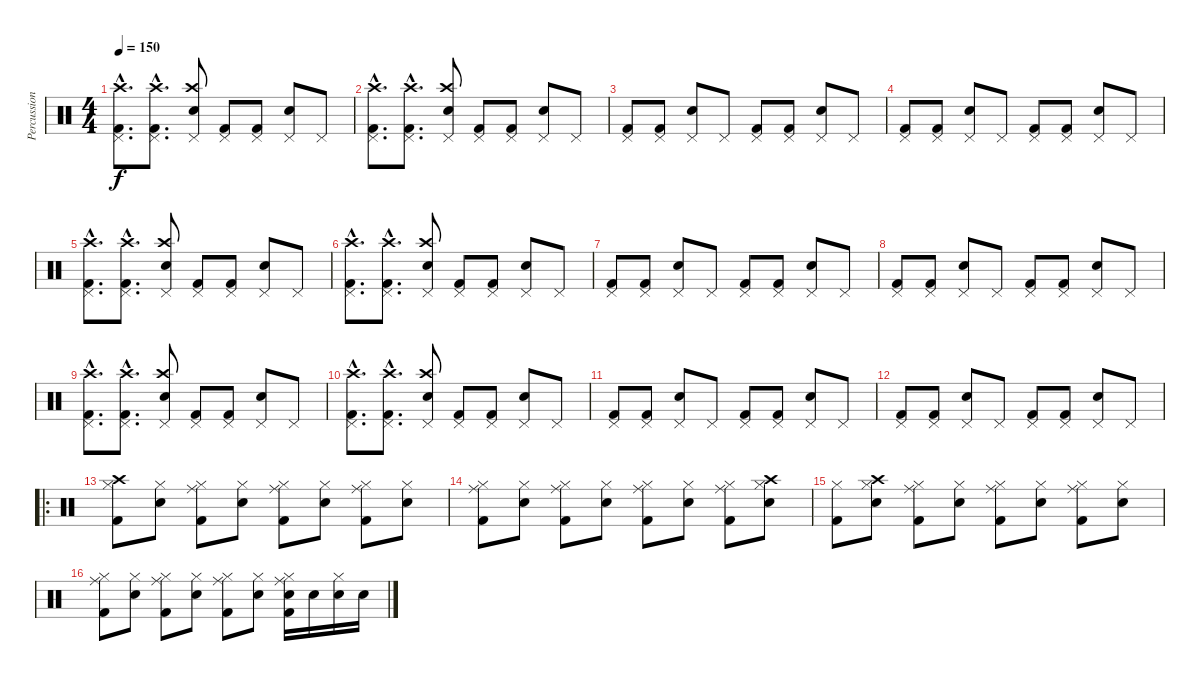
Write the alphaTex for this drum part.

\track ("Percussion" "Percussion") {instrument percussion}
\staff {score}
\articulation defaults
\ts (4 4)
\tempo 150
\clef neutral
\ks c
("Pedal Hi-Hat (hit)"{hac} "Kick (hit) 2"{hac} "Crash high (hit)"{hac}).8{d dy f} ("Pedal Hi-Hat (hit)"{hac} "Kick (hit) 2"{hac} "Crash high (hit)"{hac}).8{d} ("Pedal Hi-Hat (hit)" "Electric Snare (hit)" "Crash high (hit)").8 ("Pedal Hi-Hat (hit)" "Kick (hit) 2").8 ("Pedal Hi-Hat (hit)" "Kick (hit) 2").8 ("Pedal Hi-Hat (hit)" "Electric Snare (hit)").8 "Pedal Hi-Hat (hit)".8 |
("Pedal Hi-Hat (hit)"{hac} "Kick (hit) 2"{hac} "Crash high (hit)"{hac}).8{d} ("Pedal Hi-Hat (hit)"{hac} "Kick (hit) 2"{hac} "Crash high (hit)"{hac}).8{d} ("Pedal Hi-Hat (hit)" "Electric Snare (hit)" "Crash high (hit)").8 ("Pedal Hi-Hat (hit)" "Kick (hit) 2").8 ("Pedal Hi-Hat (hit)" "Kick (hit) 2").8 ("Pedal Hi-Hat (hit)" "Electric Snare (hit)").8 "Pedal Hi-Hat (hit)".8 |
("Pedal Hi-Hat (hit)" "Kick (hit) 2").8 ("Pedal Hi-Hat (hit)" "Kick (hit) 2").8 ("Pedal Hi-Hat (hit)" "Electric Snare (hit)").8 "Pedal Hi-Hat (hit)".8 ("Pedal Hi-Hat (hit)" "Kick (hit) 2").8 ("Pedal Hi-Hat (hit)" "Kick (hit) 2").8 ("Pedal Hi-Hat (hit)" "Electric Snare (hit)").8 "Pedal Hi-Hat (hit)".8 |
("Pedal Hi-Hat (hit)" "Kick (hit) 2").8 ("Pedal Hi-Hat (hit)" "Kick (hit) 2").8 ("Pedal Hi-Hat (hit)" "Electric Snare (hit)").8 "Pedal Hi-Hat (hit)".8 ("Pedal Hi-Hat (hit)" "Kick (hit) 2").8 ("Pedal Hi-Hat (hit)" "Kick (hit) 2").8 ("Pedal Hi-Hat (hit)" "Electric Snare (hit)").8 "Pedal Hi-Hat (hit)".8 |
("Pedal Hi-Hat (hit)"{hac} "Kick (hit) 2"{hac} "Crash high (hit)"{hac}).8{d} ("Pedal Hi-Hat (hit)"{hac} "Kick (hit) 2"{hac} "Crash high (hit)"{hac}).8{d} ("Pedal Hi-Hat (hit)" "Electric Snare (hit)" "Crash high (hit)").8 ("Pedal Hi-Hat (hit)" "Kick (hit) 2").8 ("Pedal Hi-Hat (hit)" "Kick (hit) 2").8 ("Pedal Hi-Hat (hit)" "Electric Snare (hit)").8 "Pedal Hi-Hat (hit)".8 |
("Pedal Hi-Hat (hit)"{hac} "Kick (hit) 2"{hac} "Crash high (hit)"{hac}).8{d} ("Pedal Hi-Hat (hit)"{hac} "Kick (hit) 2"{hac} "Crash high (hit)"{hac}).8{d} ("Pedal Hi-Hat (hit)" "Electric Snare (hit)" "Crash high (hit)").8 ("Pedal Hi-Hat (hit)" "Kick (hit) 2").8 ("Pedal Hi-Hat (hit)" "Kick (hit) 2").8 ("Pedal Hi-Hat (hit)" "Electric Snare (hit)").8 "Pedal Hi-Hat (hit)".8 |
("Pedal Hi-Hat (hit)" "Kick (hit) 2").8 ("Pedal Hi-Hat (hit)" "Kick (hit) 2").8 ("Pedal Hi-Hat (hit)" "Electric Snare (hit)").8 "Pedal Hi-Hat (hit)".8 ("Pedal Hi-Hat (hit)" "Kick (hit) 2").8 ("Pedal Hi-Hat (hit)" "Kick (hit) 2").8 ("Pedal Hi-Hat (hit)" "Electric Snare (hit)").8 "Pedal Hi-Hat (hit)".8 |
("Pedal Hi-Hat (hit)" "Kick (hit) 2").8 ("Pedal Hi-Hat (hit)" "Kick (hit) 2").8 ("Pedal Hi-Hat (hit)" "Electric Snare (hit)").8 "Pedal Hi-Hat (hit)".8 ("Pedal Hi-Hat (hit)" "Kick (hit) 2").8 ("Pedal Hi-Hat (hit)" "Kick (hit) 2").8 ("Pedal Hi-Hat (hit)" "Electric Snare (hit)").8 "Pedal Hi-Hat (hit)".8 |
("Pedal Hi-Hat (hit)"{hac} "Kick (hit) 2"{hac} "Crash high (hit)"{hac}).8{d} ("Pedal Hi-Hat (hit)"{hac} "Kick (hit) 2"{hac} "Crash high (hit)"{hac}).8{d} ("Pedal Hi-Hat (hit)" "Electric Snare (hit)" "Crash high (hit)").8 ("Pedal Hi-Hat (hit)" "Kick (hit) 2").8 ("Pedal Hi-Hat (hit)" "Kick (hit) 2").8 ("Pedal Hi-Hat (hit)" "Electric Snare (hit)").8 "Pedal Hi-Hat (hit)".8 |
("Pedal Hi-Hat (hit)"{hac} "Kick (hit) 2"{hac} "Crash high (hit)"{hac}).8{d} ("Pedal Hi-Hat (hit)"{hac} "Kick (hit) 2"{hac} "Crash high (hit)"{hac}).8{d} ("Pedal Hi-Hat (hit)" "Electric Snare (hit)" "Crash high (hit)").8 ("Pedal Hi-Hat (hit)" "Kick (hit) 2").8 ("Pedal Hi-Hat (hit)" "Kick (hit) 2").8 ("Pedal Hi-Hat (hit)" "Electric Snare (hit)").8 "Pedal Hi-Hat (hit)".8 |
("Pedal Hi-Hat (hit)" "Kick (hit) 2").8 ("Pedal Hi-Hat (hit)" "Kick (hit) 2").8 ("Pedal Hi-Hat (hit)" "Electric Snare (hit)").8 "Pedal Hi-Hat (hit)".8 ("Pedal Hi-Hat (hit)" "Kick (hit) 2").8 ("Pedal Hi-Hat (hit)" "Kick (hit) 2").8 ("Pedal Hi-Hat (hit)" "Electric Snare (hit)").8 "Pedal Hi-Hat (hit)".8 |
("Pedal Hi-Hat (hit)" "Kick (hit) 2").8 ("Pedal Hi-Hat (hit)" "Kick (hit) 2").8 ("Pedal Hi-Hat (hit)" "Electric Snare (hit)").8 "Pedal Hi-Hat (hit)".8 ("Pedal Hi-Hat (hit)" "Kick (hit) 2").8 ("Pedal Hi-Hat (hit)" "Kick (hit) 2").8 ("Pedal Hi-Hat (hit)" "Electric Snare (hit)").8 "Pedal Hi-Hat (hit)".8 |
\ro
("Hi-Hat (closed)" "Kick (hit) 2" "Crash high (hit)").8 ("Hi-Hat (closed)" "Electric Snare (hit)").8 ("Hi-Hat (closed)" "Kick (hit) 2" "Ride (middle)").8 ("Hi-Hat (closed)" "Electric Snare (hit)").8 ("Hi-Hat (closed)" "Kick (hit) 2" "Ride (middle)").8 ("Hi-Hat (closed)" "Electric Snare (hit)").8 ("Hi-Hat (closed)" "Kick (hit) 2" "Ride (middle)").8 ("Hi-Hat (closed)" "Electric Snare (hit)").8 |
("Hi-Hat (closed)" "Kick (hit) 2" "Ride (middle)").8 ("Hi-Hat (closed)" "Electric Snare (hit)").8 ("Hi-Hat (closed)" "Kick (hit) 2" "Ride (middle)").8 ("Hi-Hat (closed)" "Electric Snare (hit)").8 ("Hi-Hat (closed)" "Kick (hit) 2" "Ride (middle)").8 ("Hi-Hat (closed)" "Electric Snare (hit)").8 ("Hi-Hat (closed)" "Kick (hit) 2" "Ride (middle)").8 ("Hi-Hat (closed)" "Electric Snare (hit)" "Crash high (hit)").8 |
("Hi-Hat (closed)" "Kick (hit) 2").8 ("Hi-Hat (closed)" "Electric Snare (hit)" "Crash high (hit)").8 ("Hi-Hat (closed)" "Kick (hit) 2" "Ride (middle)").8 ("Hi-Hat (closed)" "Electric Snare (hit)").8 ("Hi-Hat (closed)" "Kick (hit) 2" "Ride (middle)").8 ("Hi-Hat (closed)" "Electric Snare (hit)").8 ("Hi-Hat (closed)" "Kick (hit) 2" "Ride (middle)").8 ("Hi-Hat (closed)" "Electric Snare (hit)").8 |
("Hi-Hat (closed)" "Kick (hit) 2" "Ride (middle)").8 ("Hi-Hat (closed)" "Electric Snare (hit)").8 ("Hi-Hat (closed)" "Kick (hit) 2" "Ride (middle)").8 ("Hi-Hat (closed)" "Electric Snare (hit)").8 ("Hi-Hat (closed)" "Kick (hit) 2" "Ride (middle)").8 ("Hi-Hat (closed)" "Electric Snare (hit)").8 ("Hi-Hat (closed)" "Electric Snare (hit)" "Kick (hit) 2" "Ride (middle)").16 "Electric Snare (hit)".16 ("Hi-Hat (closed)" "Electric Snare (hit)").16 "Electric Snare (hit)".16
